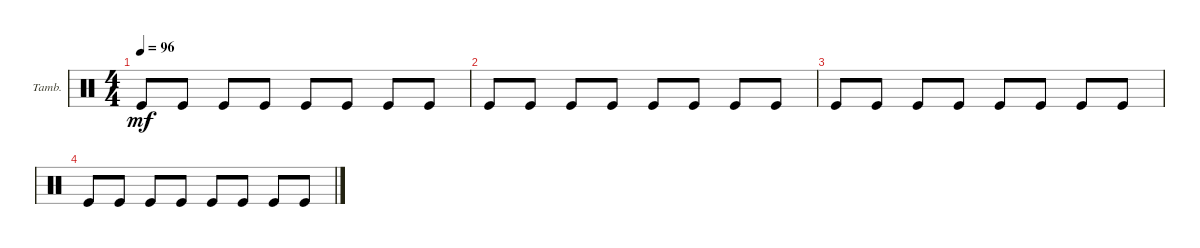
\defaultSystemsLayout 4
\bracketExtendMode groupsimilarinstruments
\firstSystemTrackNameOrientation horizontal
\otherSystemsTrackNameOrientation horizontal
\track ("Tambourine" "Tamb.") {instrument percussion}
\staff {score}
\articulation defaults
\ts (4 4)
\tempo 96
\clef neutral
\ks c "Kick (hit)".8{dy mf} "Kick (hit)".8 "Kick (hit)".8 "Kick (hit)".8 "Kick (hit)".8 "Kick (hit)".8 "Kick (hit)".8 "Kick (hit)".8
|
"Kick (hit)".8 "Kick (hit)".8 "Kick (hit)".8 "Kick (hit)".8 "Kick (hit)".8 "Kick (hit)".8 "Kick (hit)".8 "Kick (hit)".8 |
"Kick (hit)".8 "Kick (hit)".8 "Kick (hit)".8 "Kick (hit)".8 "Kick (hit)".8 "Kick (hit)".8 "Kick (hit)".8 "Kick (hit)".8 |
"Kick (hit)".8 "Kick (hit)".8 "Kick (hit)".8 "Kick (hit)".8 "Kick (hit)".8 "Kick (hit)".8 "Kick (hit)".8 "Kick (hit)".8
